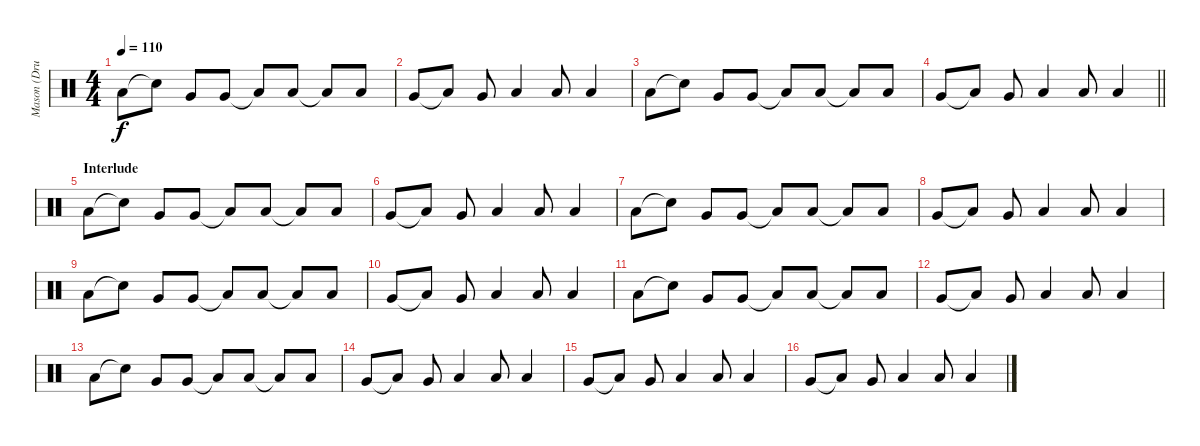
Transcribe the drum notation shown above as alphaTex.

\track ("Mason (Drums)" "Mason (Dru") {instrument percussion}
\staff {score}
\articulation defaults
\ts (4 4)
\tempo 110
\clef neutral
\ks c "Low Tom (hit)".8{dy f} "Snare (hit)"{t}.8 "Very Low Tom (hit)".8 "Very Low Tom (hit)".8 "Low Floor Tom (hit)"{t}.8 "Low Floor Tom (hit)".8 "Low Tom (hit)"{t}.8 "Low Tom (hit)".8
|
"Very Low Tom (hit)".8 "Low Floor Tom (hit)"{t}.8 "Very Low Tom (hit)".8 "Low Tom (hit)".4 "Low Floor Tom (hit)".8 "Low Floor Tom (hit)".4 |
"Low Tom (hit)".8 "Snare (hit)"{t}.8 "Very Low Tom (hit)".8 "Very Low Tom (hit)".8 "Low Floor Tom (hit)"{t}.8 "Low Floor Tom (hit)".8 "Low Tom (hit)"{t}.8 "Low Tom (hit)".8 |
\barLineRight lightlight "Very Low Tom (hit)".8 "Low Floor Tom (hit)"{t}.8 "Very Low Tom (hit)".8 "Low Tom (hit)".4 "Low Floor Tom (hit)".8 "Low Floor Tom (hit)".4
|
\section ("" "Interlude")
"Low Tom (hit)".8 "Snare (hit)"{t}.8 "Very Low Tom (hit)".8 "Very Low Tom (hit)".8 "Low Floor Tom (hit)"{t}.8 "Low Floor Tom (hit)".8 "Low Tom (hit)"{t}.8 "Low Tom (hit)".8 |
"Very Low Tom (hit)".8 "Low Floor Tom (hit)"{t}.8 "Very Low Tom (hit)".8 "Low Tom (hit)".4 "Low Floor Tom (hit)".8 "Low Floor Tom (hit)".4 |
"Low Tom (hit)".8 "Snare (hit)"{t}.8 "Very Low Tom (hit)".8 "Very Low Tom (hit)".8 "Low Floor Tom (hit)"{t}.8 "Low Floor Tom (hit)".8 "Low Tom (hit)"{t}.8 "Low Tom (hit)".8 |
"Very Low Tom (hit)".8 "Low Floor Tom (hit)"{t}.8 "Very Low Tom (hit)".8 "Low Tom (hit)".4 "Low Floor Tom (hit)".8 "Low Floor Tom (hit)".4 |
"Low Tom (hit)".8 "Snare (hit)"{t}.8 "Very Low Tom (hit)".8 "Very Low Tom (hit)".8 "Low Floor Tom (hit)"{t}.8 "Low Floor Tom (hit)".8 "Low Tom (hit)"{t}.8 "Low Tom (hit)".8 |
"Very Low Tom (hit)".8 "Low Floor Tom (hit)"{t}.8 "Very Low Tom (hit)".8 "Low Tom (hit)".4 "Low Floor Tom (hit)".8 "Low Floor Tom (hit)".4 |
"Low Tom (hit)".8 "Snare (hit)"{t}.8 "Very Low Tom (hit)".8 "Very Low Tom (hit)".8 "Low Floor Tom (hit)"{t}.8 "Low Floor Tom (hit)".8 "Low Tom (hit)"{t}.8 "Low Tom (hit)".8 |
"Very Low Tom (hit)".8 "Low Floor Tom (hit)"{t}.8 "Very Low Tom (hit)".8 "Low Tom (hit)".4 "Low Floor Tom (hit)".8 "Low Floor Tom (hit)".4 |
"Low Tom (hit)".8 "Snare (hit)"{t}.8 "Very Low Tom (hit)".8 "Very Low Tom (hit)".8 "Low Floor Tom (hit)"{t}.8 "Low Floor Tom (hit)".8 "Low Tom (hit)"{t}.8 "Low Tom (hit)".8 |
"Very Low Tom (hit)".8 "Low Floor Tom (hit)"{t}.8 "Very Low Tom (hit)".8 "Low Tom (hit)".4 "Low Floor Tom (hit)".8 "Low Floor Tom (hit)".4 |
"Very Low Tom (hit)".8 "Low Floor Tom (hit)"{t}.8 "Very Low Tom (hit)".8 "Low Tom (hit)".4 "Low Floor Tom (hit)".8 "Low Floor Tom (hit)".4 |
"Very Low Tom (hit)".8 "Low Floor Tom (hit)"{t}.8 "Very Low Tom (hit)".8 "Low Tom (hit)".4 "Low Floor Tom (hit)".8 "Low Floor Tom (hit)".4
